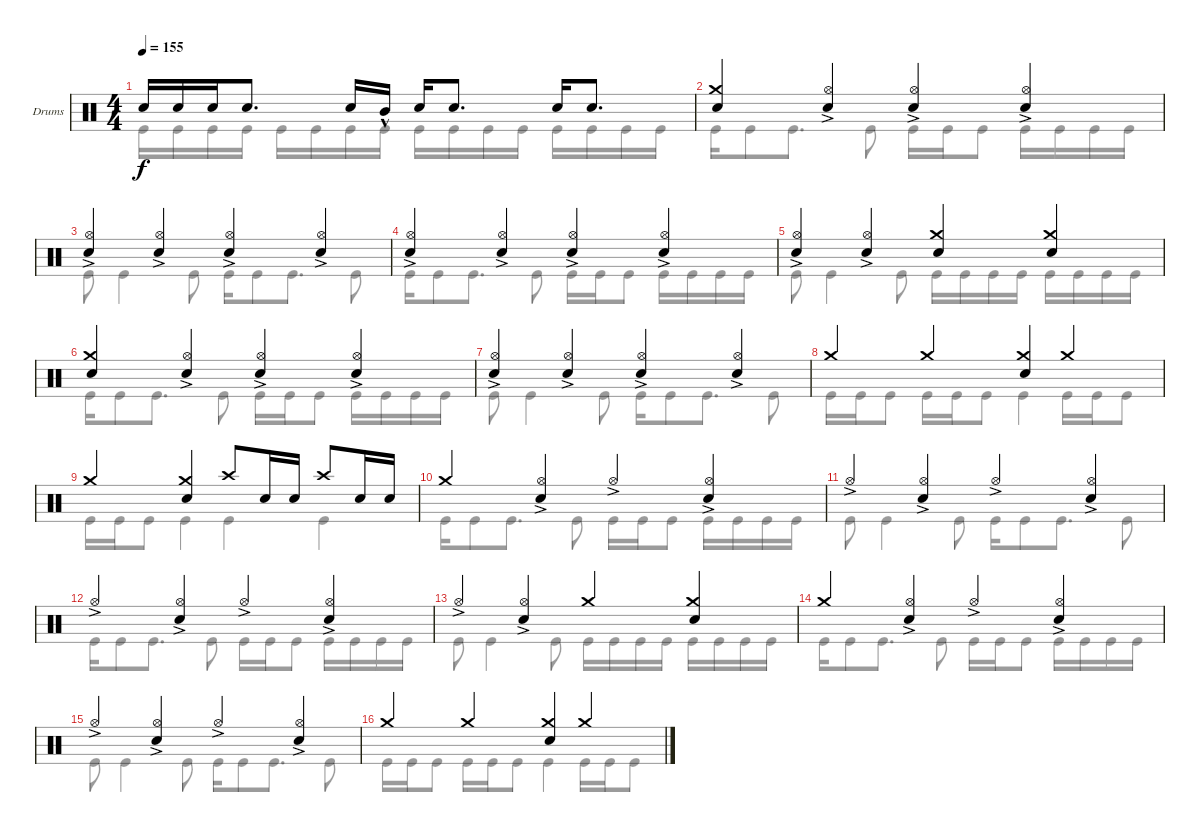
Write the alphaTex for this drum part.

\defaultSystemsLayout 4
\bracketExtendMode groupsimilarinstruments
\firstSystemTrackNameOrientation horizontal
\otherSystemsTrackNameOrientation horizontal
\track ("Drumkit" "Drums") {instrument percussion}
\staff {score}
\articulation defaults
\voice
\ts (4 4)
\tempo 155
\clef neutral
\scale
1.05675
\ks c "Snare (hit) 2".16{dy f} "Snare (hit) 2".16 "Snare (hit) 2".16 "Snare (hit) 2".8{d} "Snare (hit) 2".16 "Mid Tom (hit)"{hac}.16 "Snare (hit) 2".16 "Snare (hit) 2".8{d} "Snare (hit) 2".16 "Snare (hit) 2".8{d}
|
\scale
0.943253 ("Crash medium (hit)" "Snare (hit) 2").4 ("Snare (hit) 2" "Hi-Hat (open)"{ac}).4 ("Snare (hit) 2" "Hi-Hat (open)"{ac}).4 ("Snare (hit) 2" "Hi-Hat (open)"{ac}).4 |
\scale
1.02648 ("Snare (hit) 2" "Hi-Hat (open)"{ac}).4 ("Snare (hit) 2" "Hi-Hat (open)"{ac}).4 ("Snare (hit) 2" "Hi-Hat (open)"{ac}).4 ("Snare (hit) 2" "Hi-Hat (open)"{ac}).4 |
\scale
0.973518 ("Snare (hit) 2" "Hi-Hat (open)"{ac}).4 ("Snare (hit) 2" "Hi-Hat (open)"{ac}).4 ("Snare (hit) 2" "Hi-Hat (open)"{ac}).4 ("Snare (hit) 2" "Hi-Hat (open)"{ac}).4 |
\scale
1.02648 ("Snare (hit) 2" "Hi-Hat (open)"{ac}).4 ("Snare (hit) 2" "Hi-Hat (open)"{ac}).4 ("Snare (hit) 2" "Crash medium (hit)").4 ("Snare (hit) 2" "Crash medium (hit)").4 |
\scale
0.973518 ("Crash medium (hit)" "Snare (hit) 2").4 ("Snare (hit) 2" "Hi-Hat (open)"{ac}).4 ("Snare (hit) 2" "Hi-Hat (open)"{ac}).4 ("Snare (hit) 2" "Hi-Hat (open)"{ac}).4 |
\scale
1.02648 ("Snare (hit) 2" "Hi-Hat (open)"{ac}).4 ("Snare (hit) 2" "Hi-Hat (open)"{ac}).4 ("Snare (hit) 2" "Hi-Hat (open)"{ac}).4 ("Snare (hit) 2" "Hi-Hat (open)"{ac}).4 |
\scale
0.973518 "Crash medium (hit)".4 "Crash medium (hit)".4 ("Crash medium (hit)" "Snare (hit) 2").4 "Crash medium (hit)".4 |
\scale
1.02648 "Crash medium (hit)".4 ("Crash medium (hit)" "Snare (hit) 2").4 "Crash high (hit)".8 "Snare (hit) 2".16 "Snare (hit) 2".16 "Crash high (hit)".8 "Snare (hit) 2".16 "Snare (hit) 2".16 |
\scale
0.973518 "Crash medium (hit)".4 ("Snare (hit) 2" "Hi-Hat (open)"{ac}).4 "Hi-Hat (open)"{ac}.4 ("Snare (hit) 2" "Hi-Hat (open)"{ac}).4 |
\scale
1.02648 "Hi-Hat (open)"{ac}.4 ("Snare (hit) 2" "Hi-Hat (open)"{ac}).4 "Hi-Hat (open)"{ac}.4 ("Snare (hit) 2" "Hi-Hat (open)"{ac}).4 |
\scale
0.973518 "Hi-Hat (open)"{ac}.4 ("Snare (hit) 2" "Hi-Hat (open)"{ac}).4 "Hi-Hat (open)"{ac}.4 ("Snare (hit) 2" "Hi-Hat (open)"{ac}).4 |
\scale
1.02648 "Hi-Hat (open)"{ac}.4 ("Snare (hit) 2" "Hi-Hat (open)"{ac}).4 "Crash medium (hit)".4 ("Snare (hit) 2" "Crash medium (hit)").4 |
\scale
0.973518 "Crash medium (hit)".4 ("Snare (hit) 2" "Hi-Hat (open)"{ac}).4 "Hi-Hat (open)"{ac}.4 ("Snare (hit) 2" "Hi-Hat (open)"{ac}).4 |
\scale
1.02648 "Hi-Hat (open)"{ac}.4 ("Snare (hit) 2" "Hi-Hat (open)"{ac}).4 "Hi-Hat (open)"{ac}.4 ("Snare (hit) 2" "Hi-Hat (open)"{ac}).4 |
\scale
0.973518 "Crash medium (hit)".4 "Crash medium (hit)".4 ("Crash medium (hit)" "Snare (hit) 2").4 "Crash medium (hit)".4
\voice
\clef neutral
\ottava regular
\simile none
\scale
1.05675
\ks c "Kick (hit)".16{dy f} "Kick (hit)".16 "Kick (hit)".16 "Kick (hit)".16 "Kick (hit)".16 "Kick (hit)".16 "Kick (hit)".16 "Kick (hit)".16 "Kick (hit)".16 "Kick (hit)".16 "Kick (hit)".16 "Kick (hit)".16 "Kick (hit)".16 "Kick (hit)".16 "Kick (hit)".16 "Kick (hit)".16
|
\scale
0.943253 "Kick (hit)".16 "Kick (hit)".8 "Kick (hit)".8{d} "Kick (hit)".8 "Kick (hit)".16 "Kick (hit)".16 "Kick (hit)".8 "Kick (hit)".16 "Kick (hit)".16 "Kick (hit)".16 "Kick (hit)".16 |
\scale
1.02648 "Kick (hit)".8 "Kick (hit)".4 "Kick (hit)".8 "Kick (hit)".16 "Kick (hit)".8 "Kick (hit)".8{d} "Kick (hit)".8 |
\scale
0.973518 "Kick (hit)".16 "Kick (hit)".8 "Kick (hit)".8{d} "Kick (hit)".8 "Kick (hit)".16 "Kick (hit)".16 "Kick (hit)".8 "Kick (hit)".16 "Kick (hit)".16 "Kick (hit)".16 "Kick (hit)".16 |
\scale
1.02648 "Kick (hit)".8 "Kick (hit)".4 "Kick (hit)".8 "Kick (hit)".16 "Kick (hit)".16 "Kick (hit)".16 "Kick (hit)".16 "Kick (hit)".16 "Kick (hit)".16 "Kick (hit)".16 "Kick (hit)".16 |
\scale
0.973518 "Kick (hit)".16 "Kick (hit)".8 "Kick (hit)".8{d} "Kick (hit)".8 "Kick (hit)".16 "Kick (hit)".16 "Kick (hit)".8 "Kick (hit)".16 "Kick (hit)".16 "Kick (hit)".16 "Kick (hit)".16 |
\scale
1.02648 "Kick (hit)".8 "Kick (hit)".4 "Kick (hit)".8 "Kick (hit)".16 "Kick (hit)".8 "Kick (hit)".8{d} "Kick (hit)".8 |
\scale
0.973518 "Kick (hit)".16 "Kick (hit)".16 "Kick (hit)".8 "Kick (hit)".16 "Kick (hit)".16 "Kick (hit)".8 "Kick (hit)".4 "Kick (hit)".16 "Kick (hit)".16 "Kick (hit)".8 |
\scale
1.02648 "Kick (hit)".16 "Kick (hit)".16 "Kick (hit)".8 "Kick (hit)".4 "Kick (hit)".4 "Kick (hit)".4 |
\scale
0.973518 "Kick (hit)".16 "Kick (hit)".8 "Kick (hit)".8{d} "Kick (hit)".8 "Kick (hit)".16 "Kick (hit)".16 "Kick (hit)".8 "Kick (hit)".16 "Kick (hit)".16 "Kick (hit)".16 "Kick (hit)".16 |
\scale
1.02648 "Kick (hit)".8 "Kick (hit)".4 "Kick (hit)".8 "Kick (hit)".16 "Kick (hit)".8 "Kick (hit)".8{d} "Kick (hit)".8 |
\scale
0.973518 "Kick (hit)".16 "Kick (hit)".8 "Kick (hit)".8{d} "Kick (hit)".8 "Kick (hit)".16 "Kick (hit)".16 "Kick (hit)".8 "Kick (hit)".16 "Kick (hit)".16 "Kick (hit)".16 "Kick (hit)".16 |
\scale
1.02648 "Kick (hit)".8 "Kick (hit)".4 "Kick (hit)".8 "Kick (hit)".16 "Kick (hit)".16 "Kick (hit)".16 "Kick (hit)".16 "Kick (hit)".16 "Kick (hit)".16 "Kick (hit)".16 "Kick (hit)".16 |
\scale
0.973518 "Kick (hit)".16 "Kick (hit)".8 "Kick (hit)".8{d} "Kick (hit)".8 "Kick (hit)".16 "Kick (hit)".16 "Kick (hit)".8 "Kick (hit)".16 "Kick (hit)".16 "Kick (hit)".16 "Kick (hit)".16 |
\scale
1.02648 "Kick (hit)".8 "Kick (hit)".4 "Kick (hit)".8 "Kick (hit)".16 "Kick (hit)".8 "Kick (hit)".8{d} "Kick (hit)".8 |
\scale
0.973518 "Kick (hit)".16 "Kick (hit)".16 "Kick (hit)".8 "Kick (hit)".16 "Kick (hit)".16 "Kick (hit)".8 "Kick (hit)".4 "Kick (hit)".16 "Kick (hit)".16 "Kick (hit)".8
